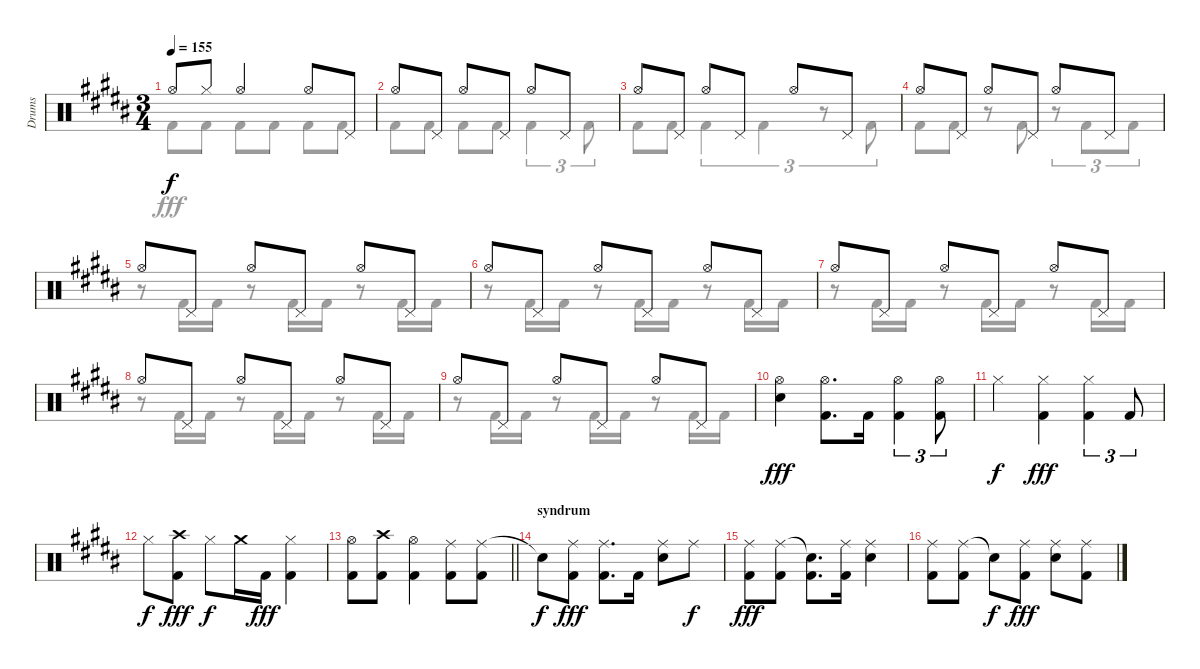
\track ("Drums" "Drums") {instrument percussion}
\staff {score}
\articulation defaults
\voice
\ts (3 4)
\tempo 155
\clef neutral
\ks b "Hi-Hat (open)".8{dy f} "Hi-Hat (closed)".8 "Hi-Hat (open)".4 "Hi-Hat (open)".8 "Pedal Hi-Hat (hit)".8
|
"Hi-Hat (open)".8 "Pedal Hi-Hat (hit)".8 "Hi-Hat (open)".8 "Pedal Hi-Hat (hit)".8 "Hi-Hat (open)".8 "Pedal Hi-Hat (hit)".8 |
"Hi-Hat (open)".8 "Pedal Hi-Hat (hit)".8 "Hi-Hat (open)".8 "Pedal Hi-Hat (hit)".8 "Hi-Hat (open)".8 "Pedal Hi-Hat (hit)".8 |
"Hi-Hat (open)".8 "Pedal Hi-Hat (hit)".8 "Hi-Hat (open)".8 "Pedal Hi-Hat (hit)".8 "Hi-Hat (open)".8 "Pedal Hi-Hat (hit)".8 |
"Hi-Hat (open)".8 "Pedal Hi-Hat (hit)".8 "Hi-Hat (open)".8 "Pedal Hi-Hat (hit)".8 "Hi-Hat (open)".8 "Pedal Hi-Hat (hit)".8 |
"Hi-Hat (open)".8 "Pedal Hi-Hat (hit)".8 "Hi-Hat (open)".8 "Pedal Hi-Hat (hit)".8 "Hi-Hat (open)".8 "Pedal Hi-Hat (hit)".8 |
"Hi-Hat (open)".8 "Pedal Hi-Hat (hit)".8 "Hi-Hat (open)".8 "Pedal Hi-Hat (hit)".8 "Hi-Hat (open)".8 "Pedal Hi-Hat (hit)".8 |
"Hi-Hat (open)".8 "Pedal Hi-Hat (hit)".8 "Hi-Hat (open)".8 "Pedal Hi-Hat (hit)".8 "Hi-Hat (open)".8 "Pedal Hi-Hat (hit)".8 |
"Hi-Hat (open)".8 "Pedal Hi-Hat (hit)".8 "Hi-Hat (open)".8 "Pedal Hi-Hat (hit)".8 "Hi-Hat (open)".8 "Pedal Hi-Hat (hit)".8 |
("Hi-Hat (open)" "Snare (hit) 2").4{dy fff} ("Hi-Hat (open)" "Kick (hit) 2").8{d} "Kick (hit) 2".16 ("Hi-Hat (open)" "Kick (hit) 2").4{tu (3 2)} ("Hi-Hat (open)" "Kick (hit) 2").8{tu (3 2)} |
"Hi-Hat (closed)".4{dy f} ("Hi-Hat (closed)" "Kick (hit) 2").4{dy fff} ("Hi-Hat (closed)" "Kick (hit) 2").4{tu (3 2)} "Kick (hit) 2".8{tu (3 2)} |
"Hi-Hat (closed)".8{dy f} ("Crash high (hit)" "Kick (hit) 2").8{dy fff} "Hi-Hat (closed)".8{dy f} "Crash medium (hit)".16 "Kick (hit) 2".16{dy fff} ("Hi-Hat (closed)" "Kick (hit) 2").4 |
\barLineRight lightlight
("Hi-Hat (open)" "Kick (hit) 2").8 ("Crash high (hit)" "Kick (hit) 2").8 ("Hi-Hat (open)" "Kick (hit) 2").4 ("Ride (middle)" "Kick (hit) 2").8 ("Ride (middle)" "Kick (hit) 2").8 |
\section ("" "syndrum")
"Snare (hit)"{t}.8{dy f} ("Ride (middle)" "Kick (hit) 2").8{dy fff} ("Ride (middle)" "Kick (hit) 2").8{d} "Kick (hit) 2".16 ("Ride (middle)" "Snare (hit) 2").8 "Ride (middle)".8{dy f} |
("Ride (middle)" "Kick (hit) 2").8{dy fff} ("Ride (middle)" "Kick (hit) 2").8 ("Snare (hit)"{t} "Kick (hit) 2").8{d} ("Ride (middle)" "Kick (hit) 2").16 ("Ride (middle)" "Snare (hit) 2").4 |
("Ride (middle)" "Kick (hit) 2").8 ("Ride (middle)" "Kick (hit) 2").8 "Snare (hit)"{t}.8{dy f} ("Ride (middle)" "Kick (hit) 2").8{dy fff} ("Ride (middle)" "Snare (hit) 2").8 ("Ride (middle)" "Kick (hit) 2").8
\voice
\clef neutral
\ottava regular
\simile none
\ks b "Kick (hit) 2".8{dy fff} "Kick (hit) 2".8 "Kick (hit) 2".8 "Kick (hit) 2".8 "Kick (hit) 2".8 "Kick (hit) 2".8
|
"Kick (hit) 2".8 "Kick (hit) 2".8 "Kick (hit) 2".8 "Kick (hit) 2".8 "Kick (hit) 2".4{tu (3 2)} "Kick (hit) 2".8{tu (3 2)} |
"Kick (hit) 2".8 "Kick (hit) 2".8 "Kick (hit) 2".4{tu (3 2)} "Kick (hit) 2".4{tu (3 2)} r.8{tu (3 2)} "Kick (hit) 2".8{tu (3 2)} |
"Kick (hit) 2".8 "Kick (hit) 2".8 r.8 "Kick (hit) 2".8 r.8{tu (3 2)} "Kick (hit) 2".8{tu (3 2)} "Kick (hit) 2".8{tu (3 2)} |
r.8 "Kick (hit) 2".16 "Kick (hit) 2".16 r.8 "Kick (hit) 2".16 "Kick (hit) 2".16 r.8 "Kick (hit) 2".16 "Kick (hit) 2".16 |
r.8 "Kick (hit) 2".16 "Kick (hit) 2".16 r.8 "Kick (hit) 2".16 "Kick (hit) 2".16 r.8 "Kick (hit) 2".16 "Kick (hit) 2".16 |
r.8 "Kick (hit) 2".16 "Kick (hit) 2".16 r.8 "Kick (hit) 2".16 "Kick (hit) 2".16 r.8 "Kick (hit) 2".16 "Kick (hit) 2".16 |
r.8 "Kick (hit) 2".16 "Kick (hit) 2".16 r.8 "Kick (hit) 2".16 "Kick (hit) 2".16 r.8 "Kick (hit) 2".16 "Kick (hit) 2".16 |
r.8 "Kick (hit) 2".16 "Kick (hit) 2".16 r.8 "Kick (hit) 2".16 "Kick (hit) 2".16 r.8 "Kick (hit) 2".16 "Kick (hit) 2".16 |
|
|
|
\barLineRight lightlight
|
|
|
